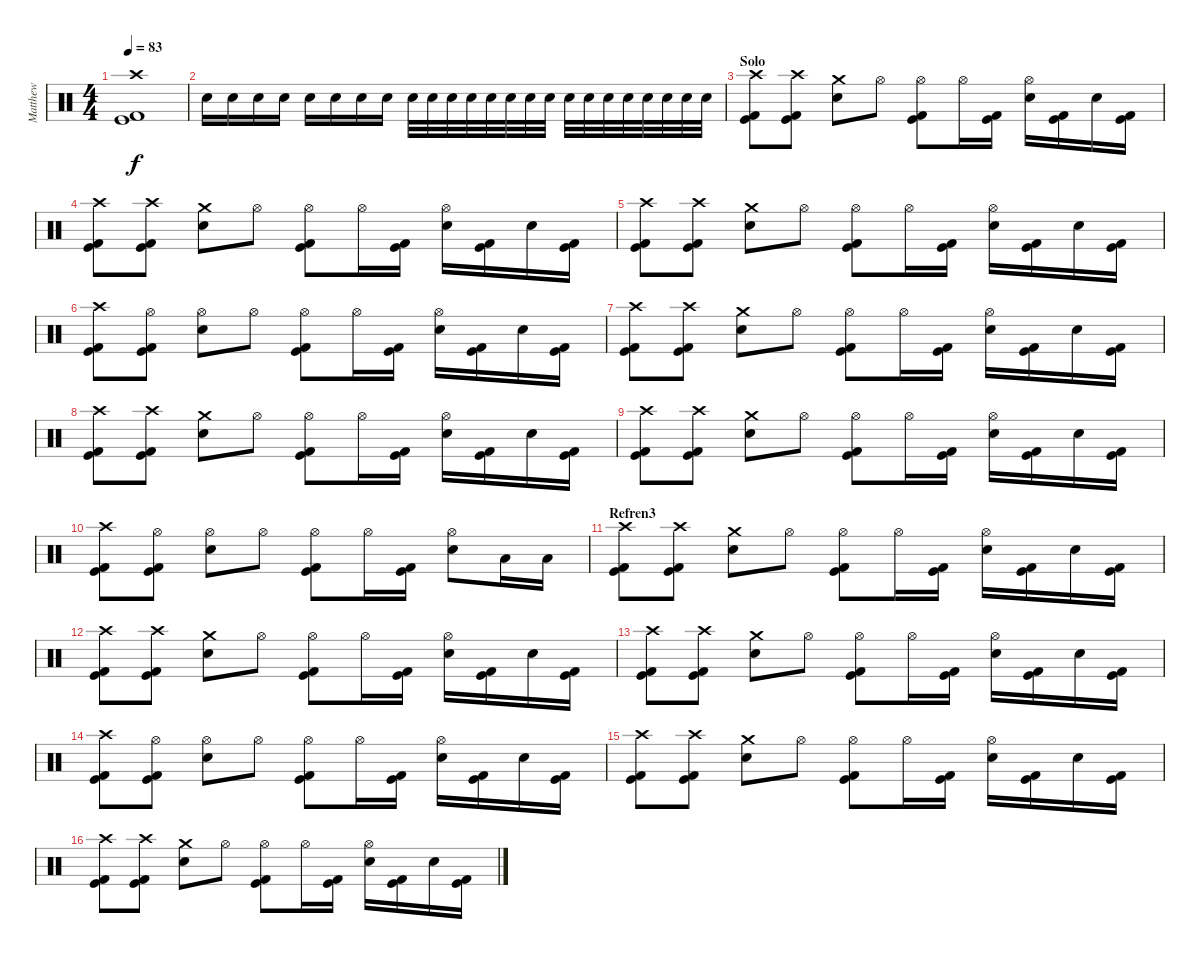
\track ("Matthew" "Matthew") {instrument percussion}
\staff {score}
\articulation defaults
\ts (4 4)
\tempo 83
\clef neutral
\ks c
("Kick (hit) 2" "Kick (hit)" "Crash high (hit)").1{dy f} |
"Snare (hit) 2".16 "Snare (hit) 2".16 "Snare (hit) 2".16 "Snare (hit) 2".16 "Snare (hit) 2".16 "Snare (hit) 2".16 "Snare (hit) 2".16 "Snare (hit) 2".16 "Snare (hit) 2".32 "Snare (hit) 2".32 "Snare (hit) 2".32 "Snare (hit) 2".32 "Snare (hit) 2".32 "Snare (hit) 2".32 "Snare (hit) 2".32 "Snare (hit) 2".32 "Snare (hit) 2".32 "Snare (hit) 2".32 "Snare (hit) 2".32 "Snare (hit) 2".32 "Snare (hit) 2".32 "Snare (hit) 2".32 "Snare (hit) 2".32 "Snare (hit) 2".32 |
\section ("" "Solo")
("Kick (hit) 2" "Kick (hit)" "Crash high (hit)").8 ("Kick (hit)" "Kick (hit) 2" "Crash high (hit)").8 ("Snare (hit) 2" "Crash medium (hit)").8 "Hi-Hat (open)".8 ("Kick (hit) 2" "Kick (hit)" "Hi-Hat (open)").8 "Hi-Hat (open)".16 ("Kick (hit) 2" "Kick (hit)").16 ("Snare (hit) 2" "Hi-Hat (open)").16 ("Kick (hit) 2" "Kick (hit)").16 "Snare (hit) 2".16 ("Kick (hit) 2" "Kick (hit)").16 |
("Kick (hit) 2" "Kick (hit)" "Crash high (hit)").8 ("Kick (hit)" "Kick (hit) 2" "Crash high (hit)").8 ("Snare (hit) 2" "Crash medium (hit)").8 "Hi-Hat (open)".8 ("Kick (hit) 2" "Kick (hit)" "Hi-Hat (open)").8 "Hi-Hat (open)".16 ("Kick (hit) 2" "Kick (hit)").16 ("Snare (hit) 2" "Hi-Hat (open)").16 ("Kick (hit) 2" "Kick (hit)").16 "Snare (hit) 2".16 ("Kick (hit) 2" "Kick (hit)").16 |
("Kick (hit) 2" "Kick (hit)" "Crash high (hit)").8 ("Kick (hit)" "Kick (hit) 2" "Crash high (hit)").8 ("Snare (hit) 2" "Crash medium (hit)").8 "Hi-Hat (open)".8 ("Kick (hit) 2" "Kick (hit)" "Hi-Hat (open)").8 "Hi-Hat (open)".16 ("Kick (hit) 2" "Kick (hit)").16 ("Snare (hit) 2" "Hi-Hat (open)").16 ("Kick (hit) 2" "Kick (hit)").16 "Snare (hit) 2".16 ("Kick (hit) 2" "Kick (hit)").16 |
("Kick (hit) 2" "Kick (hit)" "Crash high (hit)").8 ("Kick (hit) 2" "Kick (hit)" "Hi-Hat (open)").8 ("Snare (hit) 2" "Hi-Hat (open)").8 "Hi-Hat (open)".8 ("Kick (hit)" "Kick (hit) 2" "Hi-Hat (open)").8 "Hi-Hat (open)".16 ("Kick (hit) 2" "Kick (hit)").16 ("Snare (hit) 2" "Hi-Hat (open)").16 ("Kick (hit) 2" "Kick (hit)").16 "Snare (hit) 2".16 ("Kick (hit) 2" "Kick (hit)").16 |
("Kick (hit) 2" "Kick (hit)" "Crash high (hit)").8 ("Kick (hit)" "Kick (hit) 2" "Crash high (hit)").8 ("Snare (hit) 2" "Crash medium (hit)").8 "Hi-Hat (open)".8 ("Kick (hit) 2" "Kick (hit)" "Hi-Hat (open)").8 "Hi-Hat (open)".16 ("Kick (hit) 2" "Kick (hit)").16 ("Snare (hit) 2" "Hi-Hat (open)").16 ("Kick (hit) 2" "Kick (hit)").16 "Snare (hit) 2".16 ("Kick (hit) 2" "Kick (hit)").16 |
("Kick (hit) 2" "Kick (hit)" "Crash high (hit)").8 ("Kick (hit)" "Kick (hit) 2" "Crash high (hit)").8 ("Snare (hit) 2" "Crash medium (hit)").8 "Hi-Hat (open)".8 ("Kick (hit) 2" "Kick (hit)" "Hi-Hat (open)").8 "Hi-Hat (open)".16 ("Kick (hit) 2" "Kick (hit)").16 ("Snare (hit) 2" "Hi-Hat (open)").16 ("Kick (hit) 2" "Kick (hit)").16 "Snare (hit) 2".16 ("Kick (hit) 2" "Kick (hit)").16 |
("Kick (hit) 2" "Kick (hit)" "Crash high (hit)").8 ("Kick (hit)" "Kick (hit) 2" "Crash high (hit)").8 ("Snare (hit) 2" "Crash medium (hit)").8 "Hi-Hat (open)".8 ("Kick (hit) 2" "Kick (hit)" "Hi-Hat (open)").8 "Hi-Hat (open)".16 ("Kick (hit) 2" "Kick (hit)").16 ("Snare (hit) 2" "Hi-Hat (open)").16 ("Kick (hit) 2" "Kick (hit)").16 "Snare (hit) 2".16 ("Kick (hit) 2" "Kick (hit)").16 |
("Kick (hit) 2" "Kick (hit)" "Crash high (hit)").8 ("Kick (hit) 2" "Kick (hit)" "Hi-Hat (open)").8 ("Snare (hit) 2" "Hi-Hat (open)").8 "Hi-Hat (open)".8 ("Kick (hit)" "Kick (hit) 2" "Hi-Hat (open)").8 "Hi-Hat (open)".16 ("Kick (hit) 2" "Kick (hit)").16 ("Snare (hit) 2" "Hi-Hat (open)").8 "Low Tom (hit)".16 "Low Floor Tom (hit)".16 |
\section ("" "Refren3")
("Kick (hit) 2" "Kick (hit)" "Crash high (hit)").8 ("Kick (hit)" "Kick (hit) 2" "Crash high (hit)").8 ("Snare (hit) 2" "Crash medium (hit)").8 "Hi-Hat (open)".8 ("Kick (hit) 2" "Kick (hit)" "Hi-Hat (open)").8 "Hi-Hat (open)".16 ("Kick (hit) 2" "Kick (hit)").16 ("Snare (hit) 2" "Hi-Hat (open)").16 ("Kick (hit) 2" "Kick (hit)").16 "Snare (hit) 2".16 ("Kick (hit) 2" "Kick (hit)").16 |
("Kick (hit) 2" "Kick (hit)" "Crash high (hit)").8 ("Kick (hit)" "Kick (hit) 2" "Crash high (hit)").8 ("Snare (hit) 2" "Crash medium (hit)").8 "Hi-Hat (open)".8 ("Kick (hit) 2" "Kick (hit)" "Hi-Hat (open)").8 "Hi-Hat (open)".16 ("Kick (hit) 2" "Kick (hit)").16 ("Snare (hit) 2" "Hi-Hat (open)").16 ("Kick (hit) 2" "Kick (hit)").16 "Snare (hit) 2".16 ("Kick (hit) 2" "Kick (hit)").16 |
("Kick (hit) 2" "Kick (hit)" "Crash high (hit)").8 ("Kick (hit)" "Kick (hit) 2" "Crash high (hit)").8 ("Snare (hit) 2" "Crash medium (hit)").8 "Hi-Hat (open)".8 ("Kick (hit) 2" "Kick (hit)" "Hi-Hat (open)").8 "Hi-Hat (open)".16 ("Kick (hit) 2" "Kick (hit)").16 ("Snare (hit) 2" "Hi-Hat (open)").16 ("Kick (hit) 2" "Kick (hit)").16 "Snare (hit) 2".16 ("Kick (hit) 2" "Kick (hit)").16 |
("Kick (hit) 2" "Kick (hit)" "Crash high (hit)").8 ("Kick (hit) 2" "Kick (hit)" "Hi-Hat (open)").8 ("Snare (hit) 2" "Hi-Hat (open)").8 "Hi-Hat (open)".8 ("Kick (hit)" "Kick (hit) 2" "Hi-Hat (open)").8 "Hi-Hat (open)".16 ("Kick (hit) 2" "Kick (hit)").16 ("Snare (hit) 2" "Hi-Hat (open)").16 ("Kick (hit) 2" "Kick (hit)").16 "Snare (hit) 2".16 ("Kick (hit) 2" "Kick (hit)").16 |
("Kick (hit) 2" "Kick (hit)" "Crash high (hit)").8 ("Kick (hit)" "Kick (hit) 2" "Crash high (hit)").8 ("Snare (hit) 2" "Crash medium (hit)").8 "Hi-Hat (open)".8 ("Kick (hit) 2" "Kick (hit)" "Hi-Hat (open)").8 "Hi-Hat (open)".16 ("Kick (hit) 2" "Kick (hit)").16 ("Snare (hit) 2" "Hi-Hat (open)").16 ("Kick (hit) 2" "Kick (hit)").16 "Snare (hit) 2".16 ("Kick (hit) 2" "Kick (hit)").16 |
("Kick (hit) 2" "Kick (hit)" "Crash high (hit)").8 ("Kick (hit)" "Kick (hit) 2" "Crash high (hit)").8 ("Snare (hit) 2" "Crash medium (hit)").8 "Hi-Hat (open)".8 ("Kick (hit) 2" "Kick (hit)" "Hi-Hat (open)").8 "Hi-Hat (open)".16 ("Kick (hit) 2" "Kick (hit)").16 ("Snare (hit) 2" "Hi-Hat (open)").16 ("Kick (hit) 2" "Kick (hit)").16 "Snare (hit) 2".16 ("Kick (hit) 2" "Kick (hit)").16
